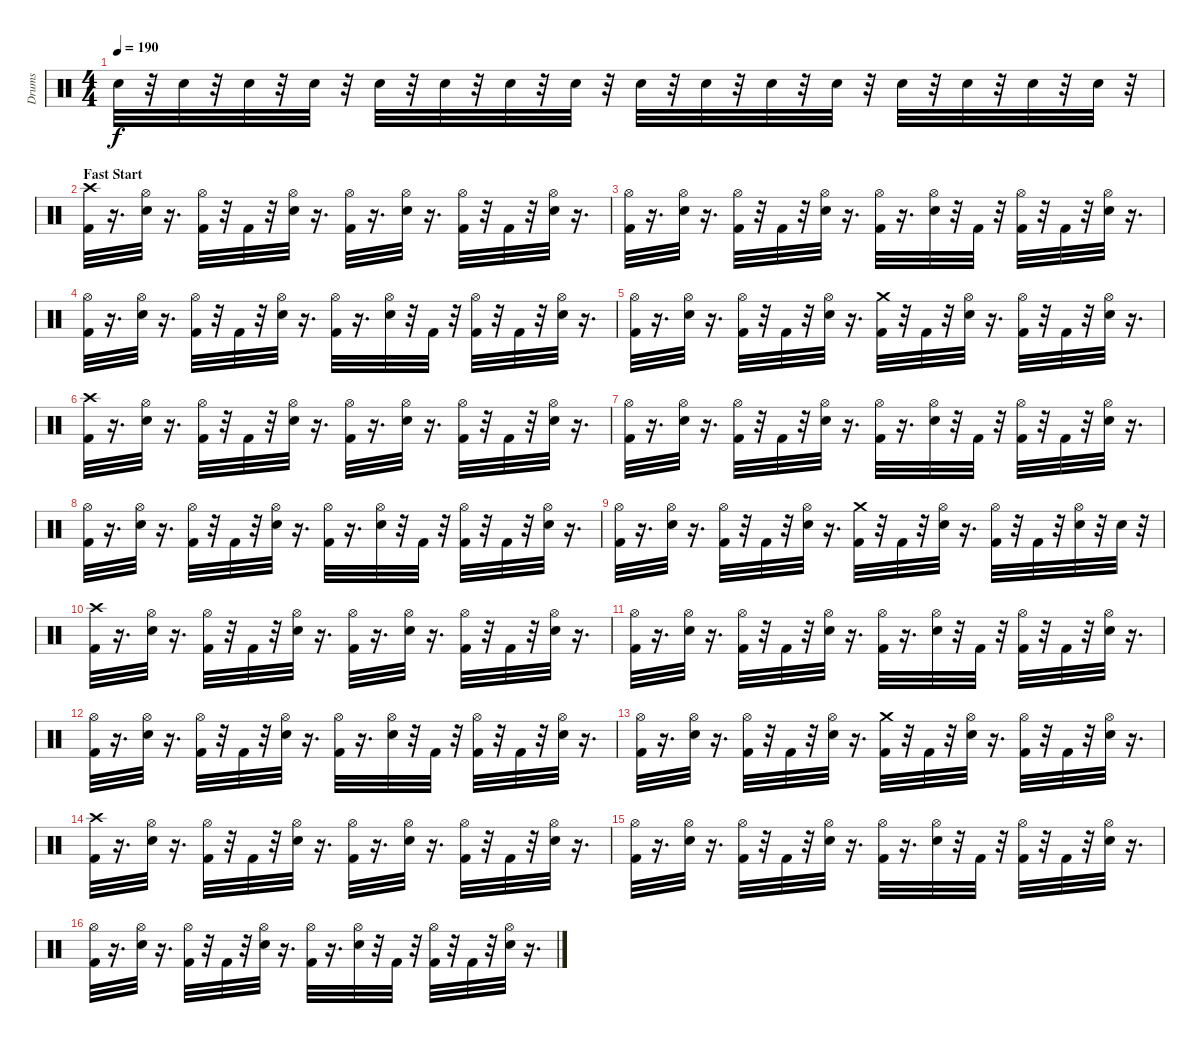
\track ("Drums" "Drums") {instrument percussion}
\staff {score}
\articulation defaults
\ts (4 4)
\tempo 190
\clef neutral
\ks c "Snare (hit) 2".32{dy f}
r.32 "Snare (hit) 2".32 r.32 "Snare (hit) 2".32 r.32 "Snare (hit) 2".32 r.32 "Snare (hit) 2".32 r.32 "Snare (hit) 2".32 r.32 "Snare (hit) 2".32 r.32 "Snare (hit) 2".32 r.32 "Snare (hit) 2".32 r.32 "Snare (hit) 2".32 r.32 "Snare (hit) 2".32 r.32 "Snare (hit) 2".32 r.32 "Snare (hit) 2".32 r.32 "Snare (hit) 2".32 r.32 "Snare (hit) 2".32 r.32 "Snare (hit) 2".32 r.32 |
\section ("" "Fast Start")
("Kick (hit) 2" "Crash high (hit)").32 r.16{d} ("Snare (hit) 2" "Hi-Hat (open)").32 r.16{d} ("Kick (hit) 2" "Hi-Hat (open)").32 r.32 "Kick (hit) 2".32 r.32 ("Hi-Hat (open)" "Snare (hit) 2").32 r.16{d} ("Kick (hit) 2" "Hi-Hat (open)").32 r.16{d} ("Snare (hit) 2" "Hi-Hat (open)").32 r.16{d} ("Kick (hit) 2" "Hi-Hat (open)").32 r.32 "Kick (hit) 2".32 r.32 ("Snare (hit) 2" "Hi-Hat (open)").32 r.16{d} |
("Hi-Hat (open)" "Kick (hit) 2").32 r.16{d} ("Hi-Hat (open)" "Snare (hit) 2").32 r.16{d} ("Hi-Hat (open)" "Kick (hit) 2").32 r.32 "Kick (hit) 2".32 r.32 ("Hi-Hat (open)" "Snare (hit) 2").32 r.16{d} ("Hi-Hat (open)" "Kick (hit) 2").32 r.16{d} ("Hi-Hat (open)" "Snare (hit) 2").32 r.32 "Kick (hit) 2".32 r.32 ("Hi-Hat (open)" "Kick (hit) 2").32 r.32 "Kick (hit) 2".32 r.32 ("Snare (hit) 2" "Hi-Hat (open)").32 r.16{d} |
("Hi-Hat (open)" "Kick (hit) 2").32 r.16{d} ("Snare (hit) 2" "Hi-Hat (open)").32 r.16{d} ("Kick (hit) 2" "Hi-Hat (open)").32 r.32 "Kick (hit) 2".32 r.32 ("Hi-Hat (open)" "Snare (hit) 2").32 r.16{d} ("Kick (hit) 2" "Hi-Hat (open)").32 r.16{d} ("Snare (hit) 2" "Hi-Hat (open)").32 r.32 "Kick (hit) 2".32 r.32 ("Hi-Hat (open)" "Kick (hit) 2").32 r.32 "Kick (hit) 2".32 r.32 ("Snare (hit) 2" "Hi-Hat (open)").32 r.16{d} |
("Kick (hit) 2" "Hi-Hat (open)").32 r.16{d} ("Hi-Hat (open)" "Snare (hit) 2").32 r.16{d} ("Kick (hit) 2" "Hi-Hat (open)").32 r.32 "Kick (hit) 2".32 r.32 ("Snare (hit) 2" "Hi-Hat (open)").32 r.16{d} ("Crash medium (hit)" "Kick (hit) 2").32 r.32 "Kick (hit) 2".32 r.32 ("Hi-Hat (open)" "Snare (hit) 2").32 r.16{d} ("Hi-Hat (open)" "Kick (hit) 2").32 r.32 "Kick (hit) 2".32 r.32 ("Snare (hit) 2" "Hi-Hat (open)").32 r.16{d} |
("Crash high (hit)" "Kick (hit) 2").32 r.16{d} ("Snare (hit) 2" "Hi-Hat (open)").32 r.16{d} ("Kick (hit) 2" "Hi-Hat (open)").32 r.32 "Kick (hit) 2".32 r.32 ("Hi-Hat (open)" "Snare (hit) 2").32 r.16{d} ("Kick (hit) 2" "Hi-Hat (open)").32 r.16{d} ("Hi-Hat (open)" "Snare (hit) 2").32 r.16{d} ("Kick (hit) 2" "Hi-Hat (open)").32 r.32 "Kick (hit) 2".32 r.32 ("Snare (hit) 2" "Hi-Hat (open)").32 r.16{d} |
("Hi-Hat (open)" "Kick (hit) 2").32 r.16{d} ("Snare (hit) 2" "Hi-Hat (open)").32 r.16{d} ("Hi-Hat (open)" "Kick (hit) 2").32 r.32 "Kick (hit) 2".32 r.32 ("Snare (hit) 2" "Hi-Hat (open)").32 r.16{d} ("Hi-Hat (open)" "Kick (hit) 2").32 r.16{d} ("Snare (hit) 2" "Hi-Hat (open)").32 r.32 "Kick (hit) 2".32 r.32 ("Kick (hit) 2" "Hi-Hat (open)").32 r.32 "Kick (hit) 2".32 r.32 ("Hi-Hat (open)" "Snare (hit) 2").32 r.16{d} |
("Hi-Hat (open)" "Kick (hit) 2").32 r.16{d} ("Hi-Hat (open)" "Snare (hit) 2").32 r.16{d} ("Hi-Hat (open)" "Kick (hit) 2").32 r.32 "Kick (hit) 2".32 r.32 ("Hi-Hat (open)" "Snare (hit) 2").32 r.16{d} ("Kick (hit) 2" "Hi-Hat (open)").32 r.16{d} ("Hi-Hat (open)" "Snare (hit) 2").32 r.32 "Kick (hit) 2".32 r.32 ("Hi-Hat (open)" "Kick (hit) 2").32 r.32 "Kick (hit) 2".32 r.32 ("Snare (hit) 2" "Hi-Hat (open)").32 r.16{d} |
("Hi-Hat (open)" "Kick (hit) 2").32 r.16{d} ("Snare (hit) 2" "Hi-Hat (open)").32 r.16{d} ("Hi-Hat (open)" "Kick (hit) 2").32 r.32 "Kick (hit) 2".32 r.32 ("Snare (hit) 2" "Hi-Hat (open)").32 r.16{d} ("Crash medium (hit)" "Kick (hit) 2").32 r.32 "Kick (hit) 2".32 r.32 ("Hi-Hat (open)" "Snare (hit) 2").32 r.16{d} ("Kick (hit) 2" "Hi-Hat (open)").32 r.32 "Kick (hit) 2".32 r.32 ("Snare (hit) 2" "Hi-Hat (open)").32 r.32 "Snare (hit) 2".32 r.32 |
("Kick (hit) 2" "Crash high (hit)").32 r.16{d} ("Snare (hit) 2" "Hi-Hat (open)").32 r.16{d} ("Hi-Hat (open)" "Kick (hit) 2").32 r.32 "Kick (hit) 2".32 r.32 ("Hi-Hat (open)" "Snare (hit) 2").32 r.16{d} ("Hi-Hat (open)" "Kick (hit) 2").32 r.16{d} ("Snare (hit) 2" "Hi-Hat (open)").32 r.16{d} ("Hi-Hat (open)" "Kick (hit) 2").32 r.32 "Kick (hit) 2".32 r.32 ("Hi-Hat (open)" "Snare (hit) 2").32 r.16{d} |
("Hi-Hat (open)" "Kick (hit) 2").32 r.16{d} ("Hi-Hat (open)" "Snare (hit) 2").32 r.16{d} ("Hi-Hat (open)" "Kick (hit) 2").32 r.32 "Kick (hit) 2".32 r.32 ("Hi-Hat (open)" "Snare (hit) 2").32 r.16{d} ("Hi-Hat (open)" "Kick (hit) 2").32 r.16{d} ("Snare (hit) 2" "Hi-Hat (open)").32 r.32 "Kick (hit) 2".32 r.32 ("Kick (hit) 2" "Hi-Hat (open)").32 r.32 "Kick (hit) 2".32 r.32 ("Snare (hit) 2" "Hi-Hat (open)").32 r.16{d} |
("Hi-Hat (open)" "Kick (hit) 2").32 r.16{d} ("Hi-Hat (open)" "Snare (hit) 2").32 r.16{d} ("Hi-Hat (open)" "Kick (hit) 2").32 r.32 "Kick (hit) 2".32 r.32 ("Snare (hit) 2" "Hi-Hat (open)").32 r.16{d} ("Kick (hit) 2" "Hi-Hat (open)").32 r.16{d} ("Snare (hit) 2" "Hi-Hat (open)").32 r.32 "Kick (hit) 2".32 r.32 ("Kick (hit) 2" "Hi-Hat (open)").32 r.32 "Kick (hit) 2".32 r.32 ("Hi-Hat (open)" "Snare (hit) 2").32 r.16{d} |
("Kick (hit) 2" "Hi-Hat (open)").32 r.16{d} ("Snare (hit) 2" "Hi-Hat (open)").32 r.16{d} ("Kick (hit) 2" "Hi-Hat (open)").32 r.32 "Kick (hit) 2".32 r.32 ("Hi-Hat (open)" "Snare (hit) 2").32 r.16{d} ("Kick (hit) 2" "Crash medium (hit)").32 r.32 "Kick (hit) 2".32 r.32 ("Hi-Hat (open)" "Snare (hit) 2").32 r.16{d} ("Kick (hit) 2" "Hi-Hat (open)").32 r.32 "Kick (hit) 2".32 r.32 ("Hi-Hat (open)" "Snare (hit) 2").32 r.16{d} |
("Crash high (hit)" "Kick (hit) 2").32 r.16{d} ("Snare (hit) 2" "Hi-Hat (open)").32 r.16{d} ("Kick (hit) 2" "Hi-Hat (open)").32 r.32 "Kick (hit) 2".32 r.32 ("Hi-Hat (open)" "Snare (hit) 2").32 r.16{d} ("Kick (hit) 2" "Hi-Hat (open)").32 r.16{d} ("Hi-Hat (open)" "Snare (hit) 2").32 r.16{d} ("Hi-Hat (open)" "Kick (hit) 2").32 r.32 "Kick (hit) 2".32 r.32 ("Snare (hit) 2" "Hi-Hat (open)").32 r.16{d} |
("Kick (hit) 2" "Hi-Hat (open)").32 r.16{d} ("Snare (hit) 2" "Hi-Hat (open)").32 r.16{d} ("Hi-Hat (open)" "Kick (hit) 2").32 r.32 "Kick (hit) 2".32 r.32 ("Snare (hit) 2" "Hi-Hat (open)").32 r.16{d} ("Hi-Hat (open)" "Kick (hit) 2").32 r.16{d} ("Snare (hit) 2" "Hi-Hat (open)").32 r.32 "Kick (hit) 2".32 r.32 ("Hi-Hat (open)" "Kick (hit) 2").32 r.32 "Kick (hit) 2".32 r.32 ("Snare (hit) 2" "Hi-Hat (open)").32 r.16{d} |
("Kick (hit) 2" "Hi-Hat (open)").32 r.16{d} ("Hi-Hat (open)" "Snare (hit) 2").32 r.16{d} ("Kick (hit) 2" "Hi-Hat (open)").32 r.32 "Kick (hit) 2".32 r.32 ("Snare (hit) 2" "Hi-Hat (open)").32 r.16{d} ("Hi-Hat (open)" "Kick (hit) 2").32 r.16{d} ("Hi-Hat (open)" "Snare (hit) 2").32 r.32 "Kick (hit) 2".32 r.32 ("Kick (hit) 2" "Hi-Hat (open)").32 r.32 "Kick (hit) 2".32 r.32 ("Snare (hit) 2" "Hi-Hat (open)").32 r.16{d}
